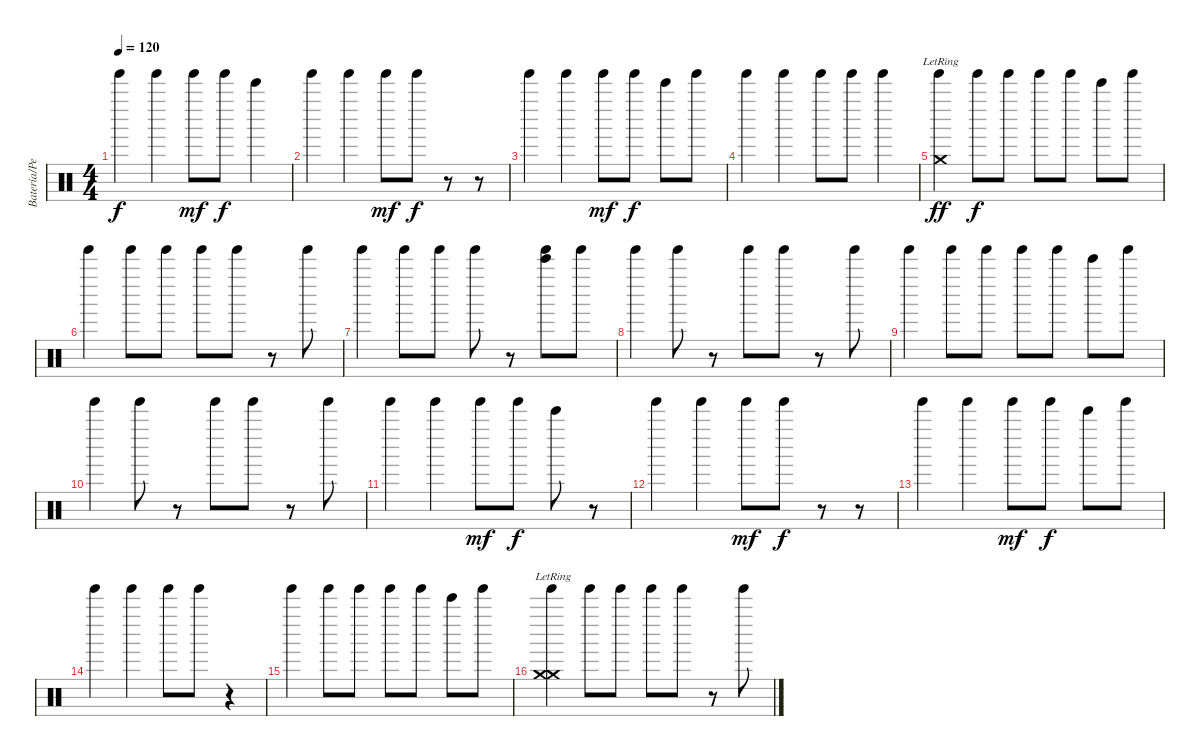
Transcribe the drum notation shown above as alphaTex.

\track ("Batería/Perc." "Batería/Pe") {instrument percussion}
\staff {score}
\articulation defaults
\ts (4 4)
\tempo 120
\clef neutral
\ks c "Tinkle Bell (hit)".4{dy f} "Tinkle Bell (hit)".4 "Tinkle Bell (hit)".8{dy mf} "Tinkle Bell (hit)".8{dy f} "Bell Tree (hit)".4
|
"Tinkle Bell (hit)".4 "Tinkle Bell (hit)".4 "Tinkle Bell (hit)".8{dy mf} "Tinkle Bell (hit)".8{dy f} r.8 r.8 |
"Tinkle Bell (hit)".4 "Tinkle Bell (hit)".4 "Tinkle Bell (hit)".8{dy mf} "Tinkle Bell (hit)".8{dy f} "Bell Tree (hit)".8 "Tinkle Bell (hit)".8 |
"Tinkle Bell (hit)".4 "Tinkle Bell (hit)".4 "Tinkle Bell (hit)".8 "Tinkle Bell (hit)".8 "Tinkle Bell (hit)".4 |
("Crash medium (hit)"{lr} "Tinkle Bell (hit)").4{dy ff} "Tinkle Bell (hit)".8{dy f} "Tinkle Bell (hit)".8 "Tinkle Bell (hit)".8 "Tinkle Bell (hit)".8 "Bell Tree (hit)".8 "Tinkle Bell (hit)".8 |
"Tinkle Bell (hit)".4 "Tinkle Bell (hit)".8 "Tinkle Bell (hit)".8 "Tinkle Bell (hit)".8 "Tinkle Bell (hit)".8 r.8 "Tinkle Bell (hit)".8 |
"Tinkle Bell (hit)".4 "Tinkle Bell (hit)".8 "Tinkle Bell (hit)".8 "Tinkle Bell (hit)".8 r.8 ("Bell Tree (hit)" "Tinkle Bell (hit)").8 "Tinkle Bell (hit)".8 |
"Tinkle Bell (hit)".4 "Tinkle Bell (hit)".8 r.8 "Tinkle Bell (hit)".8 "Tinkle Bell (hit)".8 r.8 "Tinkle Bell (hit)".8 |
"Tinkle Bell (hit)".4 "Tinkle Bell (hit)".8 "Tinkle Bell (hit)".8 "Tinkle Bell (hit)".8 "Tinkle Bell (hit)".8 "Bell Tree (hit)".8 "Tinkle Bell (hit)".8 |
"Tinkle Bell (hit)".4 "Tinkle Bell (hit)".8 r.8 "Tinkle Bell (hit)".8 "Tinkle Bell (hit)".8 r.8 "Tinkle Bell (hit)".8 |
"Tinkle Bell (hit)".4 "Tinkle Bell (hit)".4 "Tinkle Bell (hit)".8{dy mf} "Tinkle Bell (hit)".8{dy f} "Bell Tree (hit)".8 r.8 |
"Tinkle Bell (hit)".4 "Tinkle Bell (hit)".4 "Tinkle Bell (hit)".8{dy mf} "Tinkle Bell (hit)".8{dy f} r.8 r.8 |
"Tinkle Bell (hit)".4 "Tinkle Bell (hit)".4 "Tinkle Bell (hit)".8{dy mf} "Tinkle Bell (hit)".8{dy f} "Bell Tree (hit)".8 "Tinkle Bell (hit)".8 |
"Tinkle Bell (hit)".4 "Tinkle Bell (hit)".4 "Tinkle Bell (hit)".8 "Tinkle Bell (hit)".8 r.4 |
"Tinkle Bell (hit)".4 "Tinkle Bell (hit)".8 "Tinkle Bell (hit)".8 "Tinkle Bell (hit)".8 "Tinkle Bell (hit)".8 "Bell Tree (hit)".8 "Tinkle Bell (hit)".8 |
("Crash medium (hit)"{lr} "Tinkle Bell (hit)" "Crash medium (hit)"{lr}).4 "Tinkle Bell (hit)".8 "Tinkle Bell (hit)".8 "Tinkle Bell (hit)".8 "Tinkle Bell (hit)".8 r.8 "Tinkle Bell (hit)".8
